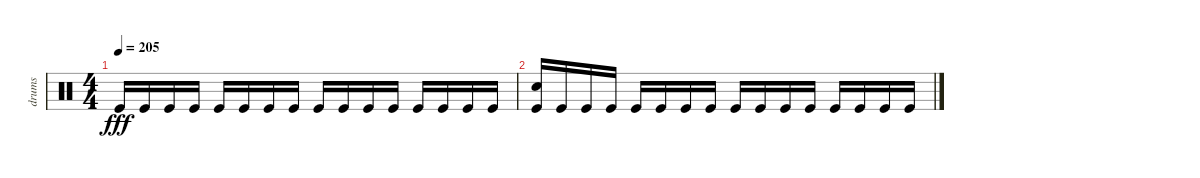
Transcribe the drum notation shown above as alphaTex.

\track ("drums" "drums") {instrument percussion}
\staff {score}
\articulation defaults
\ts (4 4)
\tempo 205
\clef neutral
\ks c "Kick (hit)".16{dy fff} "Kick (hit)".16 "Kick (hit)".16 "Kick (hit)".16 "Kick (hit)".16 "Kick (hit)".16 "Kick (hit)".16 "Kick (hit)".16 "Kick (hit)".16 "Kick (hit)".16 "Kick (hit)".16 "Kick (hit)".16 "Kick (hit)".16 "Kick (hit)".16 "Kick (hit)".16 "Kick (hit)".16
|
("Electric Snare (hit)" "Kick (hit)").16 "Kick (hit)".16 "Kick (hit)".16 "Kick (hit)".16 "Kick (hit)".16 "Kick (hit)".16 "Kick (hit)".16 "Kick (hit)".16 "Kick (hit)".16 "Kick (hit)".16 "Kick (hit)".16 "Kick (hit)".16 "Kick (hit)".16 "Kick (hit)".16 "Kick (hit)".16 "Kick (hit)".16
